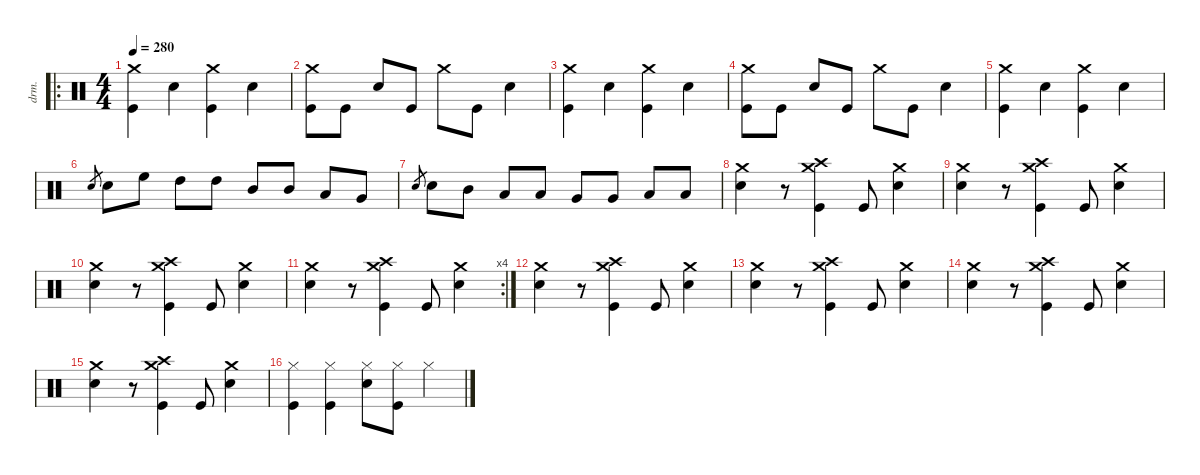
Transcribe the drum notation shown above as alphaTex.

\defaultSystemsLayout 4
\hideDynamics
\bracketExtendMode nobrackets
\otherSystemsTrackNameOrientation horizontal
\track ("Nick Menza" "drm.") {defaultSystemsLayout 4 instrument percussion}
\staff {score}
\articulation defaults
\ro
\ts (4 4)
\tempo 280
\clef neutral
\ks c
("Crash medium (hit)" "Kick (hit)").4{dy f beam Down} "Snare (hit) 2".4{beam Down} ("Crash medium (hit)" "Kick (hit)").4{beam Down} "Snare (hit) 2".4{beam Down} |
("Crash medium (hit)" "Kick (hit)").8{beam Down} "Kick (hit)".8{beam Down} "Snare (hit) 2".8{beam Up} "Kick (hit)".8{beam Up} "Crash medium (hit)".8{beam Down} "Kick (hit)".8{beam Down} "Snare (hit) 2".4{beam Down} |
("Crash medium (hit)" "Kick (hit)").4{beam Down} "Snare (hit) 2".4{beam Down} ("Crash medium (hit)" "Kick (hit)").4{beam Down} "Snare (hit) 2".4{beam Down} |
("Crash medium (hit)" "Kick (hit)").8{beam Down} "Kick (hit)".8{beam Down} "Snare (hit) 2".8{beam Up} "Kick (hit)".8{beam Up} "Crash medium (hit)".8{beam Down} "Kick (hit)".8{beam Down} "Snare (hit) 2".4{beam Down} |
("Crash medium (hit)" "Kick (hit)").4{beam Down} "Snare (hit) 2".4{beam Down} ("Crash medium (hit)" "Kick (hit)").4{beam Down} "Snare (hit) 2".4{beam Down} |
"Snare (hit) 2".8{gr dy mf beam Up} "Snare (hit) 2".8{dy f beam Down} "High Floor Tom (hit)".8{beam Down} "High Tom (hit)".8{beam Down} "High Tom (hit)".8{beam Down} "Mid Tom (hit)".8{beam Up} "Mid Tom (hit)".8{beam Up} "Low Tom (hit)".8{beam Up} "Very Low Tom (hit)".8{beam Up} |
"Snare (hit) 2".8{gr dy mf beam Up} "Snare (hit) 2".8{dy f beam Down} "Mid Tom (hit)".8{beam Down} "Low Tom (hit)".8{beam Up} "Low Tom (hit)".8{beam Up} "Very Low Tom (hit)".8{beam Up} "Very Low Tom (hit)".8{beam Up} "Low Floor Tom (hit)".8{beam Up} "Low Floor Tom (hit)".8{beam Up} |
("Crash medium (hit)" "Snare (hit) 2").4{beam Down} r.8{beam Down} ("Crash high (hit)" "Crash medium (hit)" "Kick (hit)").4{dy mp beam Down} "Kick (hit)".8{dy f beam Up} ("Crash medium (hit)" "Snare (hit) 2").4{beam Down} |
("Crash medium (hit)" "Snare (hit) 2").4{beam Down} r.8{beam Down} ("Crash high (hit)" "Crash medium (hit)" "Kick (hit)").4{dy mp beam Down} "Kick (hit)".8{dy f beam Up} ("Crash medium (hit)" "Snare (hit) 2").4{beam Down} |
("Crash medium (hit)" "Snare (hit) 2").4{beam Down} r.8{beam Down} ("Crash high (hit)" "Crash medium (hit)" "Kick (hit)").4{dy mp beam Down} "Kick (hit)".8{dy f beam Up} ("Crash medium (hit)" "Snare (hit) 2").4{beam Down} |
\rc 4
("Crash medium (hit)" "Snare (hit) 2").4{beam Down} r.8{beam Down} ("Crash high (hit)" "Crash medium (hit)" "Kick (hit)").4{dy mp beam Down} "Kick (hit)".8{dy f beam Up} ("Crash medium (hit)" "Snare (hit) 2").4{beam Down} |
("Crash medium (hit)" "Snare (hit) 2").4{beam Down} r.8{beam Down} ("Crash high (hit)" "Crash medium (hit)" "Kick (hit)").4{dy mp beam Down} "Kick (hit)".8{dy f beam Up} ("Crash medium (hit)" "Snare (hit) 2").4{beam Down} |
("Crash medium (hit)" "Snare (hit) 2").4{beam Down} r.8{beam Down} ("Crash high (hit)" "Crash medium (hit)" "Kick (hit)").4{dy mp beam Down} "Kick (hit)".8{dy f beam Up} ("Crash medium (hit)" "Snare (hit) 2").4{beam Down} |
("Crash medium (hit)" "Snare (hit) 2").4{beam Down} r.8{beam Down} ("Crash high (hit)" "Crash medium (hit)" "Kick (hit)").4{dy mp beam Down} "Kick (hit)".8{dy f beam Up} ("Crash medium (hit)" "Snare (hit) 2").4{beam Down} |
("Crash medium (hit)" "Snare (hit) 2").4{beam Down} r.8{beam Down} ("Crash high (hit)" "Crash medium (hit)" "Kick (hit)").4{dy mp beam Down} "Kick (hit)".8{dy f beam Up} ("Crash medium (hit)" "Snare (hit) 2").4{beam Down} |
("Hi-Hat (closed)" "Kick (hit)").4{beam Down} ("Hi-Hat (closed)" "Kick (hit)").4{beam Down} ("Hi-Hat (closed)" "Snare (hit) 2").8{beam Down} ("Hi-Hat (closed)" "Kick (hit)").8{beam Down} "Hi-Hat (closed)".4{beam Down}
